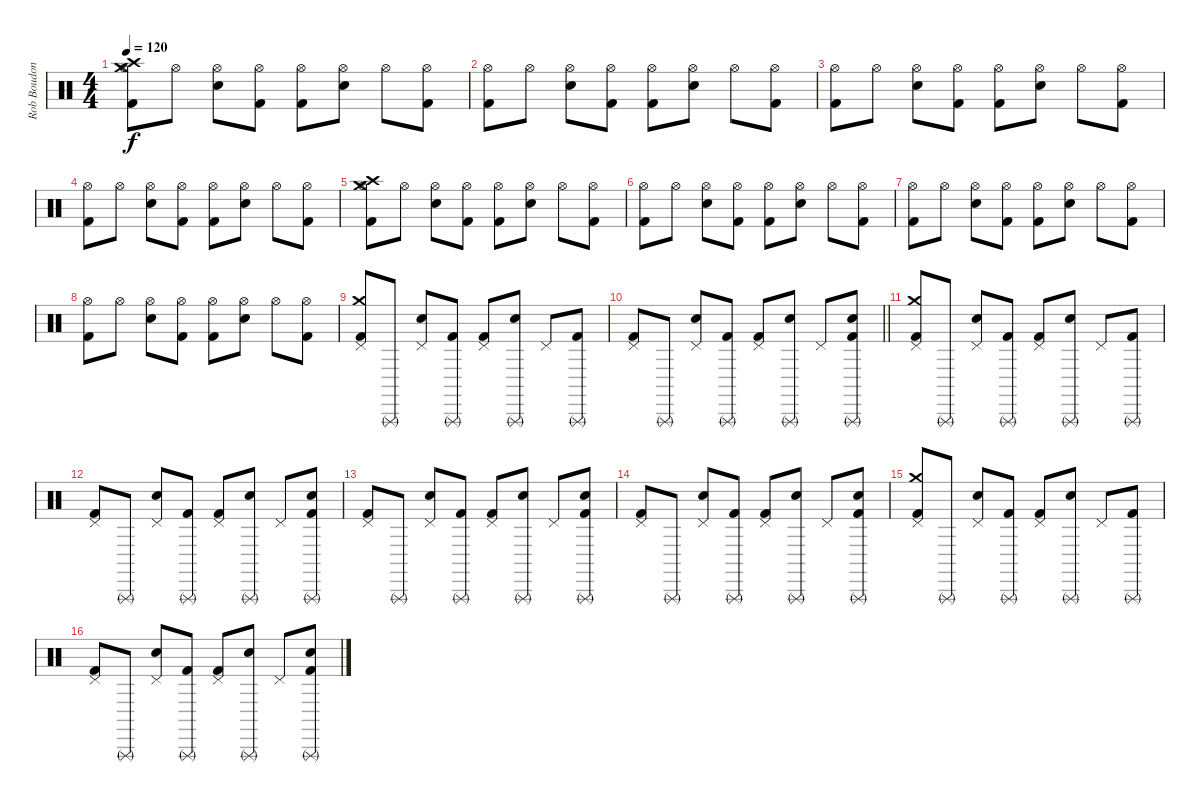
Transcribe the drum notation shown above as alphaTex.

\track ("Rob Boudon [Drums]" "Rob Boudon") {instrument percussion}
\staff {score}
\articulation defaults
\ts (4 4)
\tempo 120
\clef neutral
\ks c
("Crash medium (hit)" "Crash high (hit)" "Hi-Hat (open)" "Kick (hit) 2").8{dy f} "Hi-Hat (open)".8 ("Hi-Hat (open)" "Snare (hit) 2").8 ("Hi-Hat (open)" "Kick (hit) 2").8 ("Hi-Hat (open)" "Kick (hit) 2").8 ("Hi-Hat (open)" "Snare (hit) 2").8 "Hi-Hat (open)".8 ("Hi-Hat (open)" "Kick (hit) 2").8 |
("Hi-Hat (open)" "Kick (hit) 2").8 "Hi-Hat (open)".8 ("Hi-Hat (open)" "Snare (hit) 2").8 ("Hi-Hat (open)" "Kick (hit) 2").8 ("Hi-Hat (open)" "Kick (hit) 2").8 ("Hi-Hat (open)" "Snare (hit) 2").8 "Hi-Hat (open)".8 ("Hi-Hat (open)" "Kick (hit) 2").8 |
("Hi-Hat (open)" "Kick (hit) 2").8 "Hi-Hat (open)".8 ("Hi-Hat (open)" "Snare (hit) 2").8 ("Hi-Hat (open)" "Kick (hit) 2").8 ("Hi-Hat (open)" "Kick (hit) 2").8 ("Hi-Hat (open)" "Snare (hit) 2").8 "Hi-Hat (open)".8 ("Hi-Hat (open)" "Kick (hit) 2").8 |
("Hi-Hat (open)" "Kick (hit) 2").8 "Hi-Hat (open)".8 ("Hi-Hat (open)" "Snare (hit) 2").8 ("Hi-Hat (open)" "Kick (hit) 2").8 ("Hi-Hat (open)" "Kick (hit) 2").8 ("Hi-Hat (open)" "Snare (hit) 2").8 "Hi-Hat (open)".8 ("Hi-Hat (open)" "Kick (hit) 2").8 |
("Crash medium (hit)" "Crash high (hit)" "Hi-Hat (open)" "Kick (hit) 2").8 "Hi-Hat (open)".8 ("Hi-Hat (open)" "Snare (hit) 2").8 ("Hi-Hat (open)" "Kick (hit) 2").8 ("Hi-Hat (open)" "Kick (hit) 2").8 ("Hi-Hat (open)" "Snare (hit) 2").8 "Hi-Hat (open)".8 ("Hi-Hat (open)" "Kick (hit) 2").8 |
("Hi-Hat (open)" "Kick (hit) 2").8 "Hi-Hat (open)".8 ("Hi-Hat (open)" "Snare (hit) 2").8 ("Hi-Hat (open)" "Kick (hit) 2").8 ("Hi-Hat (open)" "Kick (hit) 2").8 ("Hi-Hat (open)" "Snare (hit) 2").8 "Hi-Hat (open)".8 ("Hi-Hat (open)" "Kick (hit) 2").8 |
("Hi-Hat (open)" "Kick (hit) 2").8 "Hi-Hat (open)".8 ("Hi-Hat (open)" "Snare (hit) 2").8 ("Hi-Hat (open)" "Kick (hit) 2").8 ("Hi-Hat (open)" "Kick (hit) 2").8 ("Hi-Hat (open)" "Snare (hit) 2").8 "Hi-Hat (open)".8 ("Hi-Hat (open)" "Kick (hit) 2").8 |
("Hi-Hat (open)" "Kick (hit) 2").8 "Hi-Hat (open)".8 ("Hi-Hat (open)" "Snare (hit) 2").8 ("Hi-Hat (open)" "Kick (hit) 2").8 ("Hi-Hat (open)" "Kick (hit) 2").8 ("Hi-Hat (open)" "Snare (hit) 2").8 "Hi-Hat (open)".8 ("Hi-Hat (open)" "Kick (hit) 2").8 |
("Crash medium (hit)" "Pedal Hi-Hat (hit)" "Kick (hit) 2").8 "Triangle (rnute)".8 ("Pedal Hi-Hat (hit)" "Snare (hit) 2").8 ("Triangle (rnute)" "Kick (hit) 2").8 ("Pedal Hi-Hat (hit)" "Kick (hit) 2").8 ("Triangle (rnute)" "Snare (hit) 2").8 "Pedal Hi-Hat (hit)".8 ("Triangle (rnute)" "Kick (hit) 2").8 |
\barLineRight lightlight
("Pedal Hi-Hat (hit)" "Kick (hit) 2").8 "Triangle (rnute)".8 ("Pedal Hi-Hat (hit)" "Snare (hit) 2").8 ("Triangle (rnute)" "Kick (hit) 2").8 ("Pedal Hi-Hat (hit)" "Kick (hit) 2").8 ("Triangle (rnute)" "Snare (hit) 2").8 "Pedal Hi-Hat (hit)".8 ("Triangle (rnute)" "Snare (hit) 2" "Kick (hit) 2").8 |
("Crash medium (hit)" "Pedal Hi-Hat (hit)" "Kick (hit) 2").8 "Triangle (rnute)".8 ("Pedal Hi-Hat (hit)" "Snare (hit) 2").8 ("Triangle (rnute)" "Kick (hit) 2").8 ("Pedal Hi-Hat (hit)" "Kick (hit) 2").8 ("Triangle (rnute)" "Snare (hit) 2").8 "Pedal Hi-Hat (hit)".8 ("Triangle (rnute)" "Kick (hit) 2").8 |
("Pedal Hi-Hat (hit)" "Kick (hit) 2").8 "Triangle (rnute)".8 ("Pedal Hi-Hat (hit)" "Snare (hit) 2").8 ("Triangle (rnute)" "Kick (hit) 2").8 ("Pedal Hi-Hat (hit)" "Kick (hit) 2").8 ("Triangle (rnute)" "Snare (hit) 2").8 "Pedal Hi-Hat (hit)".8 ("Triangle (rnute)" "Snare (hit) 2" "Kick (hit) 2").8 |
("Pedal Hi-Hat (hit)" "Kick (hit) 2").8 "Triangle (rnute)".8 ("Pedal Hi-Hat (hit)" "Snare (hit) 2").8 ("Triangle (rnute)" "Kick (hit) 2").8 ("Pedal Hi-Hat (hit)" "Kick (hit) 2").8 ("Triangle (rnute)" "Snare (hit) 2").8 "Pedal Hi-Hat (hit)".8 ("Triangle (rnute)" "Snare (hit) 2" "Kick (hit) 2").8 |
("Pedal Hi-Hat (hit)" "Kick (hit) 2").8 "Triangle (rnute)".8 ("Pedal Hi-Hat (hit)" "Snare (hit) 2").8 ("Triangle (rnute)" "Kick (hit) 2").8 ("Pedal Hi-Hat (hit)" "Kick (hit) 2").8 ("Triangle (rnute)" "Snare (hit) 2").8 "Pedal Hi-Hat (hit)".8 ("Triangle (rnute)" "Snare (hit) 2" "Kick (hit) 2").8 |
("Crash medium (hit)" "Pedal Hi-Hat (hit)" "Kick (hit) 2").8 "Triangle (rnute)".8 ("Pedal Hi-Hat (hit)" "Snare (hit) 2").8 ("Triangle (rnute)" "Kick (hit) 2").8 ("Pedal Hi-Hat (hit)" "Kick (hit) 2").8 ("Triangle (rnute)" "Snare (hit) 2").8 "Pedal Hi-Hat (hit)".8 ("Triangle (rnute)" "Kick (hit) 2").8 |
("Pedal Hi-Hat (hit)" "Kick (hit) 2").8 "Triangle (rnute)".8 ("Pedal Hi-Hat (hit)" "Snare (hit) 2").8 ("Triangle (rnute)" "Kick (hit) 2").8 ("Pedal Hi-Hat (hit)" "Kick (hit) 2").8 ("Triangle (rnute)" "Snare (hit) 2").8 "Pedal Hi-Hat (hit)".8 ("Triangle (rnute)" "Snare (hit) 2" "Kick (hit) 2").8
